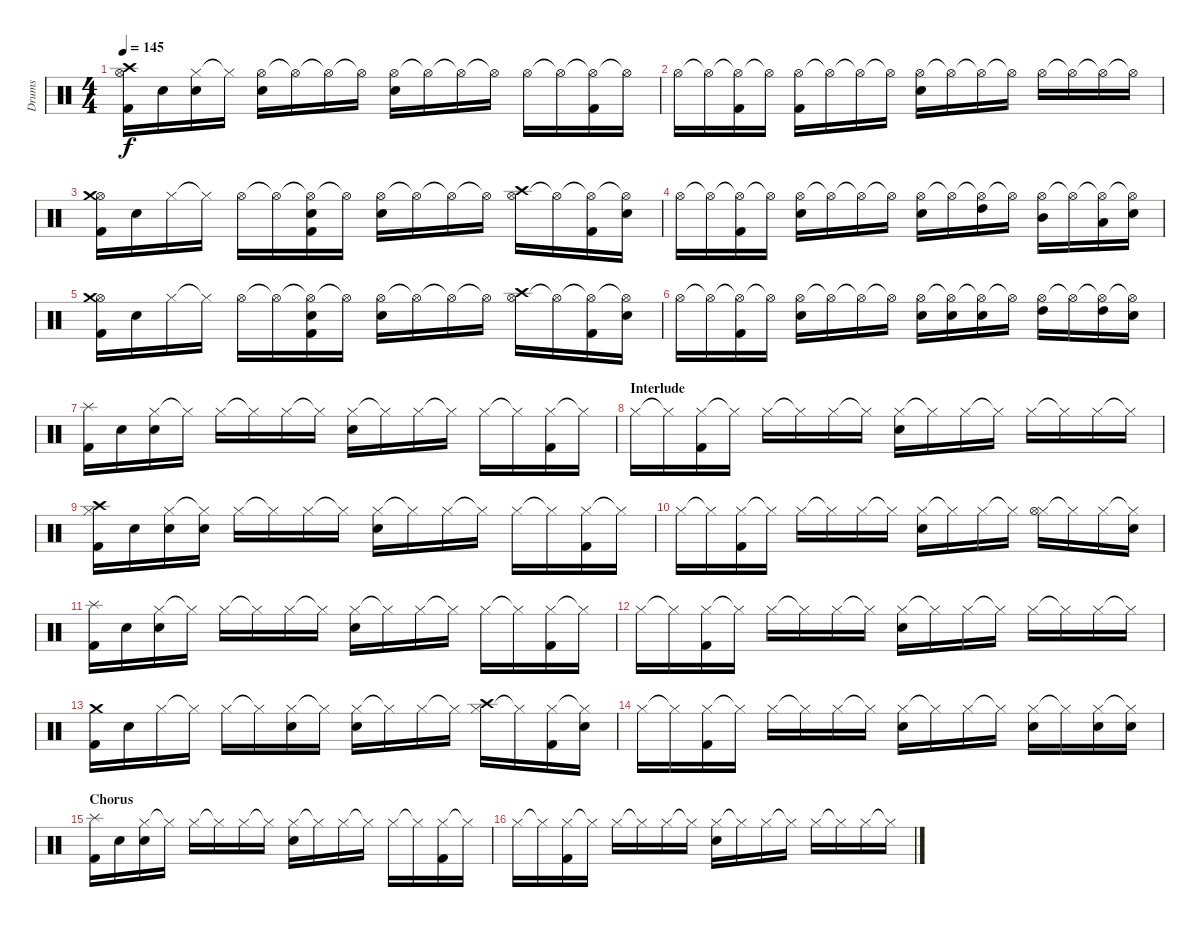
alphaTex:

\track ("Drums" "Drums") {instrument percussion}
\staff {score}
\articulation defaults
\ts (4 4)
\tempo 145
\clef neutral
\ks c
("Hi-Hat (open)" "Crash high (hit)" "Kick (hit) 2").16{dy f} "Snare (hit)".16 ("Hi-Hat (closed)" "Snare (hit)").16 "Hi-Hat (closed)"{t}.16 ("Hi-Hat (open)" "Snare (hit)").16 "Hi-Hat (open)"{t}.16 "Hi-Hat (open)"{t}.16 "Hi-Hat (open)"{t}.16 ("Hi-Hat (open)" "Snare (hit) 2").16 "Hi-Hat (open)"{t}.16 "Hi-Hat (open)"{t}.16 "Hi-Hat (open)"{t}.16 "Hi-Hat (open)".16 "Hi-Hat (open)"{t}.16 ("Hi-Hat (open)"{t} "Kick (hit) 2").16 "Hi-Hat (open)"{t}.16 |
"Hi-Hat (open)".16 "Hi-Hat (open)"{t}.16 ("Hi-Hat (open)"{t} "Kick (hit) 2").16 "Hi-Hat (open)"{t}.16 ("Hi-Hat (open)" "Kick (hit) 2").16 "Hi-Hat (open)"{t}.16 "Hi-Hat (open)"{t}.16 "Hi-Hat (open)"{t}.16 ("Hi-Hat (open)" "Snare (hit) 2").16 "Hi-Hat (open)"{t}.16 "Hi-Hat (open)"{t}.16 "Hi-Hat (open)"{t}.16 "Hi-Hat (open)".16 "Hi-Hat (open)"{t}.16 "Hi-Hat (open)"{t}.16 "Hi-Hat (open)"{t}.16 |
("Hi-Hat (open)" "Crash medium (hit)" "Kick (hit) 2").16 "Snare (hit)".16 "Hi-Hat (closed)".16 "Hi-Hat (closed)"{t}.16 "Hi-Hat (open)".16 "Hi-Hat (open)"{t}.16 ("Hi-Hat (open)"{t} "Snare (hit)" "Kick (hit) 2").16 "Hi-Hat (open)"{t}.16 ("Hi-Hat (open)" "Snare (hit) 2").16 "Hi-Hat (open)"{t}.16 "Hi-Hat (open)"{t}.16 "Hi-Hat (open)"{t}.16 ("Hi-Hat (open)" "Crash high (hit)").16 "Hi-Hat (open)"{t}.16 ("Hi-Hat (open)"{t} "Kick (hit) 2").16 ("Hi-Hat (open)"{t} "Snare (hit)").16 |
"Hi-Hat (open)".16 "Hi-Hat (open)"{t}.16 ("Hi-Hat (open)"{t} "Kick (hit) 2").16 "Hi-Hat (open)"{t}.16 ("Hi-Hat (open)" "Snare (hit) 2").16 "Hi-Hat (open)"{t}.16 "Hi-Hat (open)"{t}.16 "Hi-Hat (open)"{t}.16 ("Hi-Hat (open)" "Snare (hit) 2").16 "Hi-Hat (open)"{t}.16 ("Hi-Hat (open)"{t} "High Tom (hit)").16 "Hi-Hat (open)"{t}.16 ("Hi-Hat (open)" "Mid Tom (hit)").16 "Hi-Hat (open)"{t}.16 ("Hi-Hat (open)"{t} "Low Tom (hit)").16 ("Hi-Hat (open)"{t} "Snare (hit)").16 |
("Hi-Hat (open)" "Crash medium (hit)" "Kick (hit) 2").16 "Snare (hit)".16 "Hi-Hat (closed)".16 "Hi-Hat (closed)"{t}.16 "Hi-Hat (open)".16 "Hi-Hat (open)"{t}.16 ("Hi-Hat (open)"{t} "Snare (hit)" "Kick (hit) 2").16 "Hi-Hat (open)"{t}.16 ("Hi-Hat (open)" "Snare (hit) 2").16 "Hi-Hat (open)"{t}.16 "Hi-Hat (open)"{t}.16 "Hi-Hat (open)"{t}.16 ("Hi-Hat (open)" "Crash high (hit)").16 "Hi-Hat (open)"{t}.16 ("Hi-Hat (open)"{t} "Kick (hit) 2").16 ("Hi-Hat (open)"{t} "Snare (hit)").16 |
"Hi-Hat (open)".16 "Hi-Hat (open)"{t}.16 ("Hi-Hat (open)"{t} "Kick (hit) 2").16 "Hi-Hat (open)"{t}.16 ("Hi-Hat (open)" "Snare (hit) 2").16 "Hi-Hat (open)"{t}.16 "Hi-Hat (open)"{t}.16 "Hi-Hat (open)"{t}.16 ("Hi-Hat (open)" "Snare (hit) 2").16 ("Hi-Hat (open)"{t} "Snare (hit) 2").16 ("Hi-Hat (open)"{t} "Snare (hit) 2").16 "Hi-Hat (open)"{t}.16 ("Hi-Hat (open)" "High Tom (hit)").16 "Hi-Hat (open)"{t}.16 ("Hi-Hat (open)"{t} "High Tom (hit)").16 ("Hi-Hat (open)"{t} "Snare (hit)").16 |
("Splash (hit)" "Kick (hit) 2").16 "Snare (hit)".16 ("Hi-Hat (closed)" "Snare (hit)").16 "Hi-Hat (closed)"{t}.16 "Hi-Hat (closed)".16 "Hi-Hat (closed)"{t}.16 "Hi-Hat (closed)".16 "Hi-Hat (closed)"{t}.16 ("Hi-Hat (closed)" "Snare (hit) 2").16 "Hi-Hat (closed)"{t}.16 "Hi-Hat (closed)".16 "Hi-Hat (closed)"{t}.16 "Hi-Hat (closed)".16 "Hi-Hat (closed)"{t}.16 ("Hi-Hat (closed)" "Kick (hit) 2").16 "Hi-Hat (closed)"{t}.16 |
\section ("" "Interlude")
"Hi-Hat (closed)".16 "Hi-Hat (closed)"{t}.16 ("Hi-Hat (closed)" "Kick (hit) 2").16 "Hi-Hat (closed)"{t}.16 "Hi-Hat (closed)".16 "Hi-Hat (closed)"{t}.16 "Hi-Hat (closed)".16 "Hi-Hat (closed)"{t}.16 ("Hi-Hat (closed)" "Snare (hit) 2").16 "Hi-Hat (closed)"{t}.16 "Hi-Hat (closed)".16 "Hi-Hat (closed)"{t}.16 "Hi-Hat (closed)".16 "Hi-Hat (closed)"{t}.16 "Hi-Hat (closed)".16 "Hi-Hat (closed)"{t}.16 |
("Hi-Hat (closed)" "Crash high (hit)" "Kick (hit) 2").16 "Snare (hit)".16 ("Hi-Hat (closed)" "Snare (hit)").16 ("Hi-Hat (closed)"{t} "Snare (hit)").16 "Hi-Hat (closed)".16 "Hi-Hat (closed)"{t}.16 "Hi-Hat (closed)".16 "Hi-Hat (closed)"{t}.16 ("Hi-Hat (closed)" "Snare (hit) 2").16 "Hi-Hat (closed)"{t}.16 "Hi-Hat (closed)".16 "Hi-Hat (closed)"{t}.16 "Hi-Hat (closed)".16 "Hi-Hat (closed)"{t}.16 ("Hi-Hat (closed)" "Kick (hit) 2").16 "Hi-Hat (closed)"{t}.16 |
"Hi-Hat (closed)".16 "Hi-Hat (closed)"{t}.16 ("Hi-Hat (closed)" "Kick (hit) 2").16 "Hi-Hat (closed)"{t}.16 "Hi-Hat (closed)".16 "Hi-Hat (closed)"{t}.16 "Hi-Hat (closed)".16 "Hi-Hat (closed)"{t}.16 ("Hi-Hat (closed)" "Snare (hit) 2").16 "Hi-Hat (closed)"{t}.16 "Hi-Hat (closed)".16 "Hi-Hat (closed)"{t}.16 ("Hi-Hat (closed)" "Hi-Hat (open)").16 "Hi-Hat (closed)"{t}.16 "Hi-Hat (closed)".16 ("Hi-Hat (closed)"{t} "Snare (hit)").16 |
("Splash (hit)" "Kick (hit) 2").16 "Snare (hit)".16 ("Hi-Hat (closed)" "Snare (hit)").16 "Hi-Hat (closed)"{t}.16 "Hi-Hat (closed)".16 "Hi-Hat (closed)"{t}.16 "Hi-Hat (closed)".16 "Hi-Hat (closed)"{t}.16 ("Hi-Hat (closed)" "Snare (hit) 2").16 "Hi-Hat (closed)"{t}.16 "Hi-Hat (closed)".16 "Hi-Hat (closed)"{t}.16 "Hi-Hat (closed)".16 "Hi-Hat (closed)"{t}.16 ("Hi-Hat (closed)" "Kick (hit) 2").16 "Hi-Hat (closed)"{t}.16 |
"Hi-Hat (closed)".16 "Hi-Hat (closed)"{t}.16 ("Hi-Hat (closed)" "Kick (hit) 2").16 "Hi-Hat (closed)"{t}.16 "Hi-Hat (closed)".16 "Hi-Hat (closed)"{t}.16 "Hi-Hat (closed)".16 "Hi-Hat (closed)"{t}.16 ("Hi-Hat (closed)" "Snare (hit) 2").16 "Hi-Hat (closed)"{t}.16 "Hi-Hat (closed)".16 "Hi-Hat (closed)"{t}.16 "Hi-Hat (closed)".16 "Hi-Hat (closed)"{t}.16 "Hi-Hat (closed)".16 "Hi-Hat (closed)"{t}.16 |
("Crash medium (hit)" "Kick (hit) 2").16 "Snare (hit)".16 "Hi-Hat (closed)".16 "Hi-Hat (closed)"{t}.16 "Hi-Hat (closed)".16 "Hi-Hat (closed)"{t}.16 ("Hi-Hat (closed)" "Snare (hit)").16 "Hi-Hat (closed)"{t}.16 ("Hi-Hat (closed)" "Snare (hit) 2").16 "Hi-Hat (closed)"{t}.16 "Hi-Hat (closed)".16 "Hi-Hat (closed)"{t}.16 ("Hi-Hat (closed)" "Crash high (hit)").16 "Hi-Hat (closed)"{t}.16 ("Hi-Hat (closed)" "Kick (hit) 2").16 ("Hi-Hat (closed)"{t} "Snare (hit)").16 |
"Hi-Hat (closed)".16 "Hi-Hat (closed)"{t}.16 ("Hi-Hat (closed)" "Kick (hit) 2").16 "Hi-Hat (closed)"{t}.16 "Hi-Hat (closed)".16 "Hi-Hat (closed)"{t}.16 "Hi-Hat (closed)".16 "Hi-Hat (closed)"{t}.16 ("Hi-Hat (closed)" "Snare (hit) 2").16 "Hi-Hat (closed)"{t}.16 "Hi-Hat (closed)".16 "Hi-Hat (closed)"{t}.16 ("Hi-Hat (closed)" "Snare (hit) 2").16 "Hi-Hat (closed)"{t}.16 ("Hi-Hat (closed)" "Snare (hit) 2").16 ("Hi-Hat (closed)"{t} "Snare (hit)").16 |
\section ("" "Chorus")
("Splash (hit)" "Kick (hit) 2").16 "Snare (hit)".16 ("Hi-Hat (closed)" "Snare (hit)").16 "Hi-Hat (closed)"{t}.16 "Hi-Hat (closed)".16 "Hi-Hat (closed)"{t}.16 "Hi-Hat (closed)".16 "Hi-Hat (closed)"{t}.16 ("Hi-Hat (closed)" "Snare (hit) 2").16 "Hi-Hat (closed)"{t}.16 "Hi-Hat (closed)".16 "Hi-Hat (closed)"{t}.16 "Hi-Hat (closed)".16 "Hi-Hat (closed)"{t}.16 ("Hi-Hat (closed)" "Kick (hit) 2").16 "Hi-Hat (closed)"{t}.16 |
"Hi-Hat (closed)".16 "Hi-Hat (closed)"{t}.16 ("Hi-Hat (closed)" "Kick (hit) 2").16 "Hi-Hat (closed)"{t}.16 "Hi-Hat (closed)".16 "Hi-Hat (closed)"{t}.16 "Hi-Hat (closed)".16 "Hi-Hat (closed)"{t}.16 ("Hi-Hat (closed)" "Snare (hit) 2").16 "Hi-Hat (closed)"{t}.16 "Hi-Hat (closed)".16 "Hi-Hat (closed)"{t}.16 "Hi-Hat (closed)".16 "Hi-Hat (closed)"{t}.16 "Hi-Hat (closed)".16 "Hi-Hat (closed)"{t}.16
